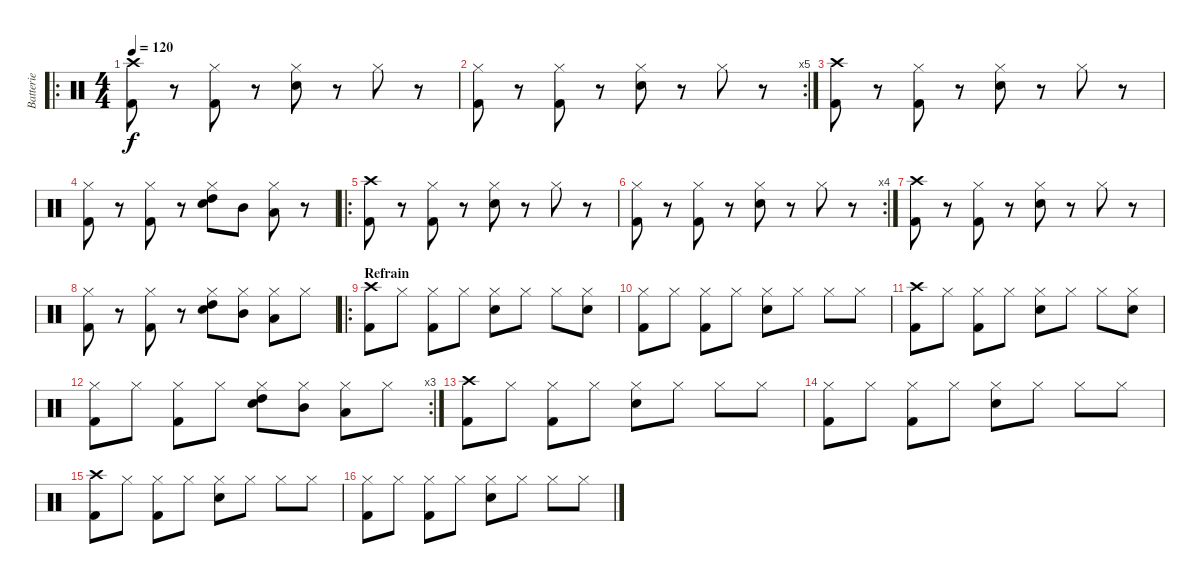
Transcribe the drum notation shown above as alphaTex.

\track ("Batterie" "Batterie") {instrument percussion}
\staff {score}
\articulation defaults
\ro
\ts (4 4)
\tempo 120
\clef neutral
\ks c
("Crash high (hit)" "Kick (hit) 2").8{dy f} r.8 ("Hi-Hat (closed)" "Kick (hit) 2").8 r.8 ("Hi-Hat (closed)" "Electric Snare (hit)").8 r.8 "Hi-Hat (closed)".8 r.8 |
\rc 5
("Hi-Hat (closed)" "Kick (hit) 2").8 r.8 ("Hi-Hat (closed)" "Kick (hit) 2").8 r.8 ("Hi-Hat (closed)" "Electric Snare (hit)").8 r.8 "Hi-Hat (closed)".8 r.8 |
("Crash high (hit)" "Kick (hit) 2").8 r.8 ("Hi-Hat (closed)" "Kick (hit) 2").8 r.8 ("Hi-Hat (closed)" "Electric Snare (hit)").8 r.8 "Hi-Hat (closed)".8 r.8 |
("Hi-Hat (closed)" "Kick (hit) 2").8 r.8 ("Hi-Hat (closed)" "Kick (hit) 2").8 r.8 ("Hi-Hat (closed)" "Electric Snare (hit)" "High Tom (hit)").8 "Mid Tom (hit)".8 ("Hi-Hat (closed)" "Low Tom (hit)").8 r.8 |
\ro
("Crash high (hit)" "Kick (hit) 2").8 r.8 ("Hi-Hat (closed)" "Kick (hit) 2").8 r.8 ("Hi-Hat (closed)" "Electric Snare (hit)").8 r.8 "Hi-Hat (closed)".8 r.8 |
\rc 4
("Hi-Hat (closed)" "Kick (hit) 2").8 r.8 ("Hi-Hat (closed)" "Kick (hit) 2").8 r.8 ("Hi-Hat (closed)" "Electric Snare (hit)").8 r.8 "Hi-Hat (closed)".8 r.8 |
("Crash high (hit)" "Kick (hit) 2").8 r.8 ("Hi-Hat (closed)" "Kick (hit) 2").8 r.8 ("Hi-Hat (closed)" "Electric Snare (hit)").8 r.8 "Hi-Hat (closed)".8 r.8 |
("Hi-Hat (closed)" "Kick (hit) 2").8 r.8 ("Hi-Hat (closed)" "Kick (hit) 2").8 r.8 ("Hi-Hat (closed)" "Electric Snare (hit)" "High Tom (hit)").8 ("Hi-Hat (closed)" "Mid Tom (hit)").8 ("Hi-Hat (closed)" "Low Tom (hit)").8 "Hi-Hat (closed)".8 |
\ro
\section ("" "Refrain")
("Crash high (hit)" "Kick (hit) 2").8 "Hi-Hat (closed)".8 ("Hi-Hat (closed)" "Kick (hit) 2").8 "Hi-Hat (closed)".8 ("Hi-Hat (closed)" "Electric Snare (hit)").8 "Hi-Hat (closed)".8 "Hi-Hat (closed)".8 ("Hi-Hat (closed)" "Electric Snare (hit)").8 |
("Hi-Hat (closed)" "Kick (hit) 2").8 "Hi-Hat (closed)".8 ("Hi-Hat (closed)" "Kick (hit) 2").8 "Hi-Hat (closed)".8 ("Hi-Hat (closed)" "Electric Snare (hit)").8 "Hi-Hat (closed)".8 "Hi-Hat (closed)".8 "Hi-Hat (closed)".8 |
("Crash high (hit)" "Kick (hit) 2").8 "Hi-Hat (closed)".8 ("Hi-Hat (closed)" "Kick (hit) 2").8 "Hi-Hat (closed)".8 ("Hi-Hat (closed)" "Electric Snare (hit)").8 "Hi-Hat (closed)".8 "Hi-Hat (closed)".8 ("Hi-Hat (closed)" "Electric Snare (hit)").8 |
\rc 3
("Hi-Hat (closed)" "Kick (hit) 2").8 "Hi-Hat (closed)".8 ("Hi-Hat (closed)" "Kick (hit) 2").8 "Hi-Hat (closed)".8 ("Hi-Hat (closed)" "Electric Snare (hit)" "High Tom (hit)").8 ("Hi-Hat (closed)" "Mid Tom (hit)").8 ("Hi-Hat (closed)" "Low Tom (hit)").8 "Hi-Hat (closed)".8 |
("Crash high (hit)" "Kick (hit) 2").8 "Hi-Hat (closed)".8 ("Hi-Hat (closed)" "Kick (hit) 2").8 "Hi-Hat (closed)".8 ("Hi-Hat (closed)" "Electric Snare (hit)").8 "Hi-Hat (closed)".8 "Hi-Hat (closed)".8 "Hi-Hat (closed)".8 |
("Hi-Hat (closed)" "Kick (hit) 2").8 "Hi-Hat (closed)".8 ("Hi-Hat (closed)" "Kick (hit) 2").8 "Hi-Hat (closed)".8 ("Hi-Hat (closed)" "Electric Snare (hit)").8 "Hi-Hat (closed)".8 "Hi-Hat (closed)".8 "Hi-Hat (closed)".8 |
("Crash high (hit)" "Kick (hit) 2").8 "Hi-Hat (closed)".8 ("Hi-Hat (closed)" "Kick (hit) 2").8 "Hi-Hat (closed)".8 ("Hi-Hat (closed)" "Electric Snare (hit)").8 "Hi-Hat (closed)".8 "Hi-Hat (closed)".8 "Hi-Hat (closed)".8 |
("Hi-Hat (closed)" "Kick (hit) 2").8 "Hi-Hat (closed)".8 ("Hi-Hat (closed)" "Kick (hit) 2").8 "Hi-Hat (closed)".8 ("Hi-Hat (closed)" "Electric Snare (hit)").8 "Hi-Hat (closed)".8 "Hi-Hat (closed)".8 "Hi-Hat (closed)".8
